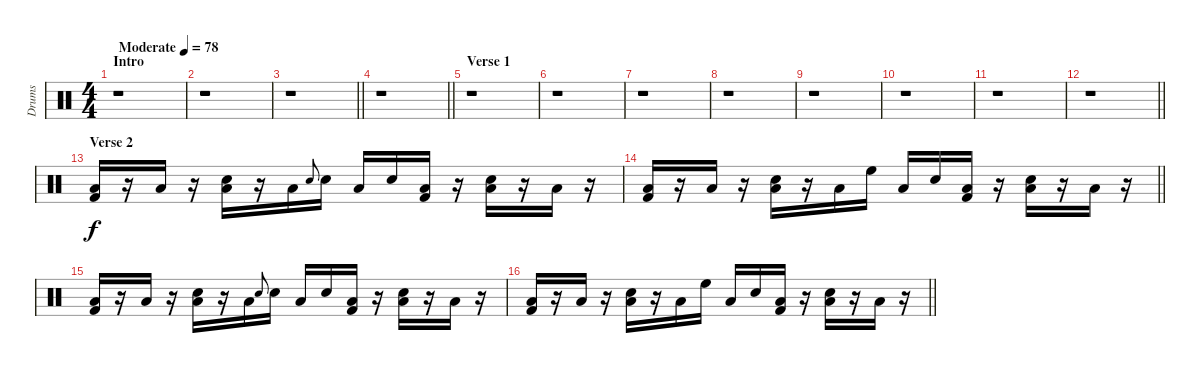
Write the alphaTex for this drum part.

\track ("Drums" "Drums") {instrument percussion}
\staff {score}
\articulation defaults
\ts (4 4)
\section ("" "Intro")
\tempo (78 "Moderate")
\clef neutral
\ks c
r.1{dy f} |
r.1 |
\barLineRight lightlight
r.1 |
\barLineRight lightlight
r.1 |
\section ("" "Verse 1")
r.1 |
r.1 |
r.1 |
r.1 |
r.1 |
r.1 |
r.1 |
\barLineRight lightlight
r.1 |
\section ("" "Verse 2")
("Low Floor Tom (hit)" "Kick (hit) 2").16 r.16 "Low Floor Tom (hit)".16 r.16 ("Snare (hit) 2" "Low Floor Tom (hit)").16 r.16 "Low Floor Tom (hit)".16 "Snare (hit) 2"{x}.8{gr onbeat} "Snare (hit) 2".16 "Low Floor Tom (hit)".16 "Snare (hit) 2".16 ("Low Floor Tom (hit)" "Kick (hit) 2").16 r.16 ("Snare (hit) 2" "Low Floor Tom (hit)").16 r.16 "Low Floor Tom (hit)".16 r.16 |
\barLineRight lightlight
("Low Floor Tom (hit)" "Kick (hit) 2").16 r.16 "Low Floor Tom (hit)".16 r.16 ("Snare (hit) 2" "Low Floor Tom (hit)").16 r.16 "Low Floor Tom (hit)".16 "High Floor Tom (hit)".16 "Low Floor Tom (hit)".16 "Snare (hit) 2".16 ("Low Floor Tom (hit)" "Kick (hit) 2").16 r.16 ("Snare (hit) 2" "Low Floor Tom (hit)").16 r.16 "Low Floor Tom (hit)".16 r.16 |
("Low Floor Tom (hit)" "Kick (hit) 2").16 r.16 "Low Floor Tom (hit)".16 r.16 ("Snare (hit) 2" "Low Floor Tom (hit)").16 r.16 "Low Floor Tom (hit)".16 "Snare (hit) 2"{x}.8{gr onbeat} "Snare (hit) 2".16 "Low Floor Tom (hit)".16 "Snare (hit) 2".16 ("Low Floor Tom (hit)" "Kick (hit) 2").16 r.16 ("Snare (hit) 2" "Low Floor Tom (hit)").16 r.16 "Low Floor Tom (hit)".16 r.16 |
\barLineRight lightlight
("Low Floor Tom (hit)" "Kick (hit) 2").16 r.16 "Low Floor Tom (hit)".16 r.16 ("Snare (hit) 2" "Low Floor Tom (hit)").16 r.16 "Low Floor Tom (hit)".16 "High Floor Tom (hit)".16 "Low Floor Tom (hit)".16 "Snare (hit) 2".16 ("Low Floor Tom (hit)" "Kick (hit) 2").16 r.16 ("Snare (hit) 2" "Low Floor Tom (hit)").16 r.16 "Low Floor Tom (hit)".16 r.16
